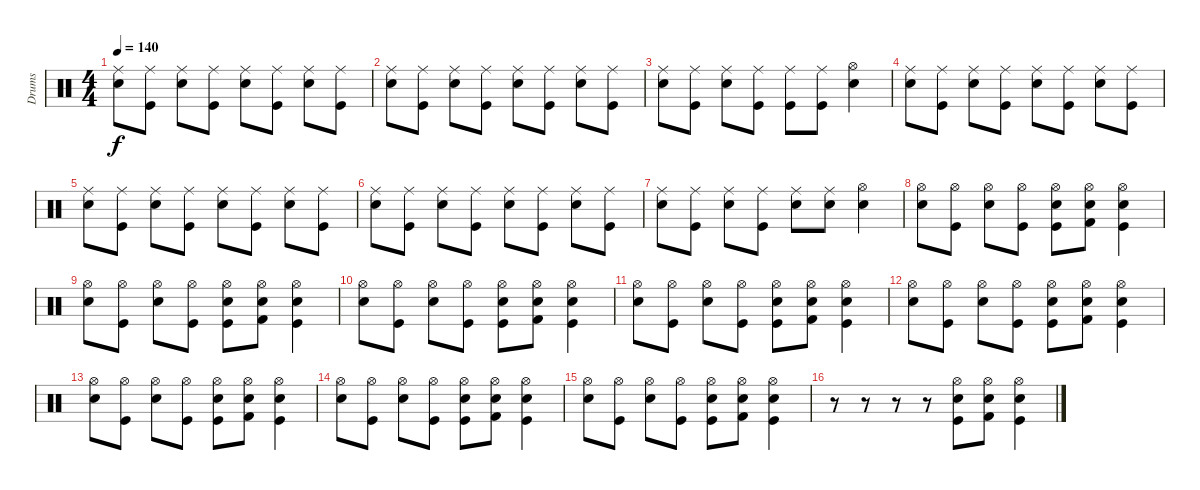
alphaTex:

\track ("Drums" "Drums") {instrument percussion}
\staff {score}
\articulation defaults
\ts (4 4)
\tempo 140
\clef neutral
\ks c
("Ride (middle)" "Snare (hit) 2").8{dy f} ("Ride (middle)" "Kick (hit)").8 ("Ride (middle)" "Snare (hit) 2").8 ("Ride (middle)" "Kick (hit)").8 ("Ride (middle)" "Snare (hit) 2").8 ("Ride (middle)" "Kick (hit)").8 ("Ride (middle)" "Snare (hit) 2").8 ("Ride (middle)" "Kick (hit)").8 |
("Ride (middle)" "Snare (hit) 2").8 ("Ride (middle)" "Kick (hit)").8 ("Ride (middle)" "Snare (hit) 2").8 ("Ride (middle)" "Kick (hit)").8 ("Ride (middle)" "Snare (hit) 2").8 ("Ride (middle)" "Kick (hit)").8 ("Ride (middle)" "Snare (hit) 2").8 ("Ride (middle)" "Kick (hit)").8 |
("Ride (middle)" "Snare (hit) 2").8 ("Ride (middle)" "Kick (hit)").8 ("Ride (middle)" "Snare (hit) 2").8 ("Ride (middle)" "Kick (hit)").8 ("Ride (middle)" "Kick (hit)").8 ("Ride (middle)" "Kick (hit)").8 ("Hi-Hat (open)" "Snare (hit) 2").4 |
("Ride (middle)" "Snare (hit) 2").8 ("Ride (middle)" "Kick (hit)").8 ("Ride (middle)" "Snare (hit) 2").8 ("Ride (middle)" "Kick (hit)").8 ("Ride (middle)" "Snare (hit) 2").8 ("Ride (middle)" "Kick (hit)").8 ("Ride (middle)" "Snare (hit) 2").8 ("Ride (middle)" "Kick (hit)").8 |
("Ride (middle)" "Snare (hit) 2").8 ("Ride (middle)" "Kick (hit)").8 ("Ride (middle)" "Snare (hit) 2").8 ("Ride (middle)" "Kick (hit)").8 ("Ride (middle)" "Snare (hit) 2").8 ("Ride (middle)" "Kick (hit)").8 ("Ride (middle)" "Snare (hit) 2").8 ("Ride (middle)" "Kick (hit)").8 |
("Ride (middle)" "Snare (hit) 2").8 ("Ride (middle)" "Kick (hit)").8 ("Ride (middle)" "Snare (hit) 2").8 ("Ride (middle)" "Kick (hit)").8 ("Ride (middle)" "Snare (hit) 2").8 ("Ride (middle)" "Kick (hit)").8 ("Ride (middle)" "Snare (hit) 2").8 ("Ride (middle)" "Kick (hit)").8 |
("Ride (middle)" "Snare (hit) 2").8 ("Ride (middle)" "Kick (hit)").8 ("Ride (middle)" "Snare (hit) 2").8 ("Ride (middle)" "Kick (hit)").8 ("Ride (middle)" "Snare (hit) 2").8 ("Ride (middle)" "Snare (hit) 2").8 ("Hi-Hat (open)" "Snare (hit) 2").4 |
("Hi-Hat (open)" "Snare (hit) 2").8 ("Hi-Hat (open)" "Kick (hit)").8 ("Hi-Hat (open)" "Snare (hit) 2").8 ("Hi-Hat (open)" "Kick (hit)").8 ("Hi-Hat (open)" "Snare (hit) 2" "Kick (hit)").8 ("Hi-Hat (open)" "Snare (hit) 2" "Kick (hit) 2").8 ("Hi-Hat (open)" "Kick (hit)" "Snare (hit) 2").4 |
("Hi-Hat (open)" "Snare (hit) 2").8 ("Hi-Hat (open)" "Kick (hit)").8 ("Hi-Hat (open)" "Snare (hit) 2").8 ("Hi-Hat (open)" "Kick (hit)").8 ("Hi-Hat (open)" "Snare (hit) 2" "Kick (hit)").8 ("Hi-Hat (open)" "Snare (hit) 2" "Kick (hit) 2").8 ("Hi-Hat (open)" "Kick (hit)" "Snare (hit) 2").4 |
("Hi-Hat (open)" "Snare (hit) 2").8 ("Hi-Hat (open)" "Kick (hit)").8 ("Hi-Hat (open)" "Snare (hit) 2").8 ("Hi-Hat (open)" "Kick (hit)").8 ("Hi-Hat (open)" "Snare (hit) 2" "Kick (hit)").8 ("Hi-Hat (open)" "Snare (hit) 2" "Kick (hit) 2").8 ("Hi-Hat (open)" "Kick (hit)" "Snare (hit) 2").4 |
("Hi-Hat (open)" "Snare (hit) 2").8 ("Hi-Hat (open)" "Kick (hit)").8 ("Hi-Hat (open)" "Snare (hit) 2").8 ("Hi-Hat (open)" "Kick (hit)").8 ("Hi-Hat (open)" "Snare (hit) 2" "Kick (hit)").8 ("Hi-Hat (open)" "Snare (hit) 2" "Kick (hit) 2").8 ("Hi-Hat (open)" "Kick (hit)" "Snare (hit) 2").4 |
("Hi-Hat (open)" "Snare (hit) 2").8 ("Hi-Hat (open)" "Kick (hit)").8 ("Hi-Hat (open)" "Snare (hit) 2").8 ("Hi-Hat (open)" "Kick (hit)").8 ("Hi-Hat (open)" "Snare (hit) 2" "Kick (hit)").8 ("Hi-Hat (open)" "Snare (hit) 2" "Kick (hit) 2").8 ("Hi-Hat (open)" "Kick (hit)" "Snare (hit) 2").4 |
("Hi-Hat (open)" "Snare (hit) 2").8 ("Hi-Hat (open)" "Kick (hit)").8 ("Hi-Hat (open)" "Snare (hit) 2").8 ("Hi-Hat (open)" "Kick (hit)").8 ("Hi-Hat (open)" "Snare (hit) 2" "Kick (hit)").8 ("Hi-Hat (open)" "Snare (hit) 2" "Kick (hit) 2").8 ("Hi-Hat (open)" "Kick (hit)" "Snare (hit) 2").4 |
("Hi-Hat (open)" "Snare (hit) 2").8 ("Hi-Hat (open)" "Kick (hit)").8 ("Hi-Hat (open)" "Snare (hit) 2").8 ("Hi-Hat (open)" "Kick (hit)").8 ("Hi-Hat (open)" "Snare (hit) 2" "Kick (hit)").8 ("Hi-Hat (open)" "Snare (hit) 2" "Kick (hit) 2").8 ("Hi-Hat (open)" "Kick (hit)" "Snare (hit) 2").4 |
("Hi-Hat (open)" "Snare (hit) 2").8 ("Hi-Hat (open)" "Kick (hit)").8 ("Hi-Hat (open)" "Snare (hit) 2").8 ("Hi-Hat (open)" "Kick (hit)").8 ("Hi-Hat (open)" "Snare (hit) 2" "Kick (hit)").8 ("Hi-Hat (open)" "Snare (hit) 2" "Kick (hit) 2").8 ("Hi-Hat (open)" "Kick (hit)" "Snare (hit) 2").4 |
r.8 r.8 r.8 r.8 ("Hi-Hat (open)" "Snare (hit) 2" "Kick (hit)").8 ("Hi-Hat (open)" "Snare (hit) 2" "Kick (hit) 2").8 ("Hi-Hat (open)" "Kick (hit)" "Snare (hit) 2").4
